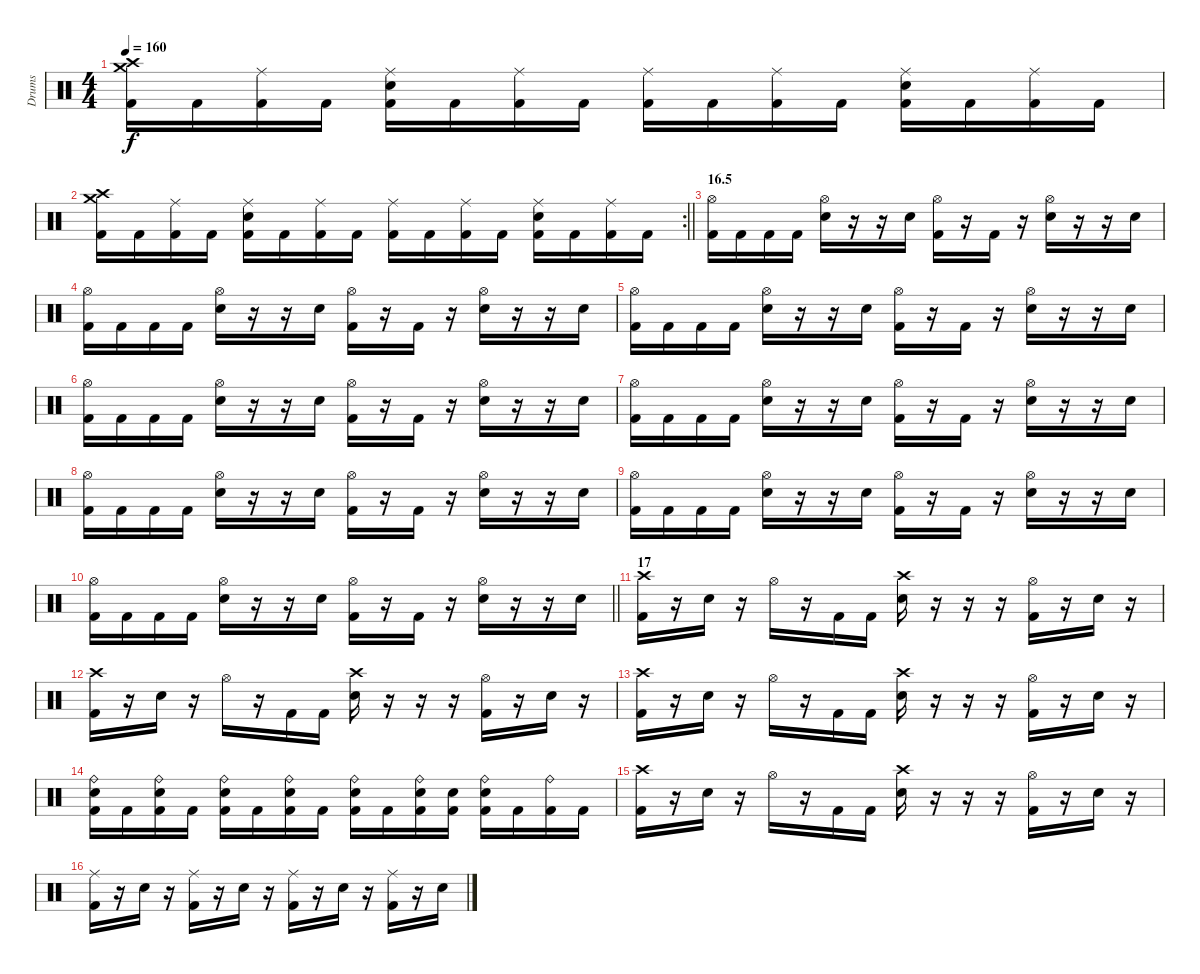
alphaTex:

\track ("Drums" "Drums") {instrument percussion}
\staff {score}
\articulation defaults
\ts (4 4)
\tempo 160
\clef neutral
\ks c
("Crash high (hit)" "Crash medium (hit)" "Kick (hit) 2").16{dy f} "Kick (hit) 2".16 ("Ride (middle)" "Kick (hit) 2").16 "Kick (hit) 2".16 ("Ride (middle)" "Electric Snare (hit)" "Kick (hit) 2").16 "Kick (hit) 2".16 ("Ride (middle)" "Kick (hit) 2").16 "Kick (hit) 2".16 ("Ride (middle)" "Kick (hit) 2").16 "Kick (hit) 2".16 ("Ride (middle)" "Kick (hit) 2").16 "Kick (hit) 2".16 ("Ride (middle)" "Electric Snare (hit)" "Kick (hit) 2").16 "Kick (hit) 2".16 ("Ride (middle)" "Kick (hit) 2").16 "Kick (hit) 2".16 |
\rc 2
\barLineRight lightlight
("Crash high (hit)" "Crash medium (hit)" "Kick (hit) 2").16 "Kick (hit) 2".16 ("Ride (middle)" "Kick (hit) 2").16 "Kick (hit) 2".16 ("Ride (middle)" "Electric Snare (hit)" "Kick (hit) 2").16 "Kick (hit) 2".16 ("Ride (middle)" "Kick (hit) 2").16 "Kick (hit) 2".16 ("Ride (middle)" "Kick (hit) 2").16 "Kick (hit) 2".16 ("Ride (middle)" "Kick (hit) 2").16 "Kick (hit) 2".16 ("Ride (middle)" "Electric Snare (hit)" "Kick (hit) 2").16 "Kick (hit) 2".16 ("Ride (middle)" "Kick (hit) 2").16 "Kick (hit) 2".16 |
\section ("" "16.5")
("Hi-Hat (open)" "Kick (hit) 2").16 "Kick (hit) 2".16 "Kick (hit) 2".16 "Kick (hit) 2".16 ("Hi-Hat (open)" "Electric Snare (hit)").16 r.16 r.16 "Electric Snare (hit)".16 ("Hi-Hat (open)" "Kick (hit) 2").16 r.16 "Kick (hit) 2".16 r.16 ("Hi-Hat (open)" "Electric Snare (hit)").16 r.16 r.16 "Electric Snare (hit)".16 |
("Hi-Hat (open)" "Kick (hit) 2").16 "Kick (hit) 2".16 "Kick (hit) 2".16 "Kick (hit) 2".16 ("Hi-Hat (open)" "Electric Snare (hit)").16 r.16 r.16 "Electric Snare (hit)".16 ("Hi-Hat (open)" "Kick (hit) 2").16 r.16 "Kick (hit) 2".16 r.16 ("Hi-Hat (open)" "Electric Snare (hit)").16 r.16 r.16 "Electric Snare (hit)".16 |
("Hi-Hat (open)" "Kick (hit) 2").16 "Kick (hit) 2".16 "Kick (hit) 2".16 "Kick (hit) 2".16 ("Hi-Hat (open)" "Electric Snare (hit)").16 r.16 r.16 "Electric Snare (hit)".16 ("Hi-Hat (open)" "Kick (hit) 2").16 r.16 "Kick (hit) 2".16 r.16 ("Hi-Hat (open)" "Electric Snare (hit)").16 r.16 r.16 "Electric Snare (hit)".16 |
("Hi-Hat (open)" "Kick (hit) 2").16 "Kick (hit) 2".16 "Kick (hit) 2".16 "Kick (hit) 2".16 ("Hi-Hat (open)" "Electric Snare (hit)").16 r.16 r.16 "Electric Snare (hit)".16 ("Hi-Hat (open)" "Kick (hit) 2").16 r.16 "Kick (hit) 2".16 r.16 ("Hi-Hat (open)" "Electric Snare (hit)").16 r.16 r.16 "Electric Snare (hit)".16 |
("Hi-Hat (open)" "Kick (hit) 2").16 "Kick (hit) 2".16 "Kick (hit) 2".16 "Kick (hit) 2".16 ("Hi-Hat (open)" "Electric Snare (hit)").16 r.16 r.16 "Electric Snare (hit)".16 ("Hi-Hat (open)" "Kick (hit) 2").16 r.16 "Kick (hit) 2".16 r.16 ("Hi-Hat (open)" "Electric Snare (hit)").16 r.16 r.16 "Electric Snare (hit)".16 |
("Hi-Hat (open)" "Kick (hit) 2").16 "Kick (hit) 2".16 "Kick (hit) 2".16 "Kick (hit) 2".16 ("Hi-Hat (open)" "Electric Snare (hit)").16 r.16 r.16 "Electric Snare (hit)".16 ("Hi-Hat (open)" "Kick (hit) 2").16 r.16 "Kick (hit) 2".16 r.16 ("Hi-Hat (open)" "Electric Snare (hit)").16 r.16 r.16 "Electric Snare (hit)".16 |
("Hi-Hat (open)" "Kick (hit) 2").16 "Kick (hit) 2".16 "Kick (hit) 2".16 "Kick (hit) 2".16 ("Hi-Hat (open)" "Electric Snare (hit)").16 r.16 r.16 "Electric Snare (hit)".16 ("Hi-Hat (open)" "Kick (hit) 2").16 r.16 "Kick (hit) 2".16 r.16 ("Hi-Hat (open)" "Electric Snare (hit)").16 r.16 r.16 "Electric Snare (hit)".16 |
\barLineRight lightlight
("Hi-Hat (open)" "Kick (hit) 2").16 "Kick (hit) 2".16 "Kick (hit) 2".16 "Kick (hit) 2".16 ("Hi-Hat (open)" "Electric Snare (hit)").16 r.16 r.16 "Electric Snare (hit)".16 ("Hi-Hat (open)" "Kick (hit) 2").16 r.16 "Kick (hit) 2".16 r.16 ("Hi-Hat (open)" "Electric Snare (hit)").16 r.16 r.16 "Electric Snare (hit)".16 |
\section ("" "17")
("Crash high (hit)" "Kick (hit) 2").16 r.16 "Electric Snare (hit)".16 r.16 "Hi-Hat (open)".16 r.16 "Kick (hit) 2".16 "Kick (hit) 2".16 ("Crash high (hit)" "Electric Snare (hit)").16 r.16 r.16 r.16 ("Hi-Hat (open)" "Kick (hit) 2").16 r.16 "Electric Snare (hit)".16 r.16 |
("Crash high (hit)" "Kick (hit) 2").16 r.16 "Electric Snare (hit)".16 r.16 "Hi-Hat (open)".16 r.16 "Kick (hit) 2".16 "Kick (hit) 2".16 ("Crash high (hit)" "Electric Snare (hit)").16 r.16 r.16 r.16 ("Hi-Hat (open)" "Kick (hit) 2").16 r.16 "Electric Snare (hit)".16 r.16 |
("Crash high (hit)" "Kick (hit) 2").16 r.16 "Electric Snare (hit)".16 r.16 "Hi-Hat (open)".16 r.16 "Kick (hit) 2".16 "Kick (hit) 2".16 ("Crash high (hit)" "Electric Snare (hit)").16 r.16 r.16 r.16 ("Hi-Hat (open)" "Kick (hit) 2").16 r.16 "Electric Snare (hit)".16 r.16 |
("Ride (bell)" "Electric Snare (hit)" "Kick (hit) 2").16 "Kick (hit) 2".16 ("Ride (bell)" "Electric Snare (hit)" "Kick (hit) 2").16 "Kick (hit) 2".16 ("Ride (bell)" "Electric Snare (hit)" "Kick (hit) 2").16 "Kick (hit) 2".16 ("Ride (bell)" "Electric Snare (hit)" "Kick (hit) 2").16 "Kick (hit) 2".16 ("Ride (bell)" "Electric Snare (hit)" "Kick (hit) 2").16 "Kick (hit) 2".16 ("Ride (bell)" "Electric Snare (hit)" "Kick (hit) 2").16 ("Electric Snare (hit)" "Kick (hit) 2").16 ("Ride (bell)" "Electric Snare (hit)" "Kick (hit) 2").16 "Kick (hit) 2".16 ("Ride (bell)" "Kick (hit) 2").16 "Kick (hit) 2".16 |
("Crash high (hit)" "Kick (hit) 2").16 r.16 "Electric Snare (hit)".16 r.16 "Hi-Hat (open)".16 r.16 "Kick (hit) 2".16 "Kick (hit) 2".16 ("Crash high (hit)" "Electric Snare (hit)").16 r.16 r.16 r.16 ("Hi-Hat (open)" "Kick (hit) 2").16 r.16 "Electric Snare (hit)".16 r.16 |
("Ride (middle)" "Kick (hit) 2").16 r.16 "Electric Snare (hit)".16 r.16 ("Ride (middle)" "Kick (hit) 2").16 r.16 "Electric Snare (hit)".16 r.16 ("Ride (middle)" "Kick (hit) 2").16 r.16 "Electric Snare (hit)".16 r.16 ("Ride (middle)" "Kick (hit) 2").16 r.16 "Electric Snare (hit)".16
